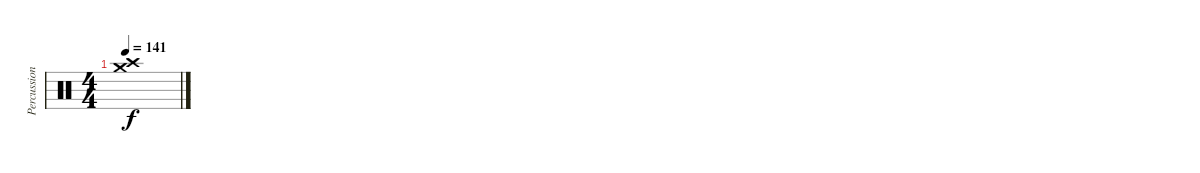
\track ("Percussion" "Percussion") {instrument percussion}
\staff {score}
\articulation defaults
\ts (4 4)
\tempo 141
\clef neutral
\ks c
("Crash high (hit)" "Crash medium (hit)").1{dy f}
